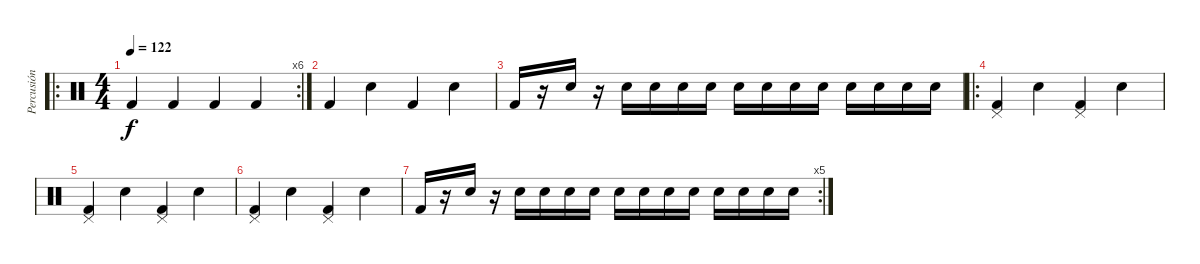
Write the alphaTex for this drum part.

\track ("Percusión" "Percusión") {instrument percussion}
\staff {score}
\articulation defaults
\ro
\rc 6
\ts (4 4)
\tempo 122
\clef neutral
\ks c "Kick (hit) 2".4{dy f} "Kick (hit) 2".4 "Kick (hit) 2".4 "Kick (hit) 2".4
|
"Kick (hit) 2".4 "Electric Snare (hit)".4 "Kick (hit) 2".4 "Electric Snare (hit)".4 |
"Kick (hit) 2".16 r.16 "Electric Snare (hit)".16 r.16 "Electric Snare (hit)".16 "Electric Snare (hit)".16 "Electric Snare (hit)".16 "Electric Snare (hit)".16 "Electric Snare (hit)".16 "Electric Snare (hit)".16 "Electric Snare (hit)".16 "Electric Snare (hit)".16 "Electric Snare (hit)".16 "Electric Snare (hit)".16 "Electric Snare (hit)".16 "Electric Snare (hit)".16 |
\ro
("Pedal Hi-Hat (hit)" "Kick (hit) 2").4 "Electric Snare (hit)".4 ("Pedal Hi-Hat (hit)" "Kick (hit) 2").4 "Electric Snare (hit)".4 |
("Pedal Hi-Hat (hit)" "Kick (hit) 2").4 "Electric Snare (hit)".4 ("Pedal Hi-Hat (hit)" "Kick (hit) 2").4 "Electric Snare (hit)".4 |
("Pedal Hi-Hat (hit)" "Kick (hit) 2").4 "Electric Snare (hit)".4 ("Pedal Hi-Hat (hit)" "Kick (hit) 2").4 "Electric Snare (hit)".4 |
\rc 5 "Kick (hit) 2".16
r.16 "Electric Snare (hit)".16 r.16 "Electric Snare (hit)".16 "Electric Snare (hit)".16 "Electric Snare (hit)".16 "Electric Snare (hit)".16 "Electric Snare (hit)".16 "Electric Snare (hit)".16 "Electric Snare (hit)".16 "Electric Snare (hit)".16 "Electric Snare (hit)".16 "Electric Snare (hit)".16 "Electric Snare (hit)".16 "Electric Snare (hit)".16
